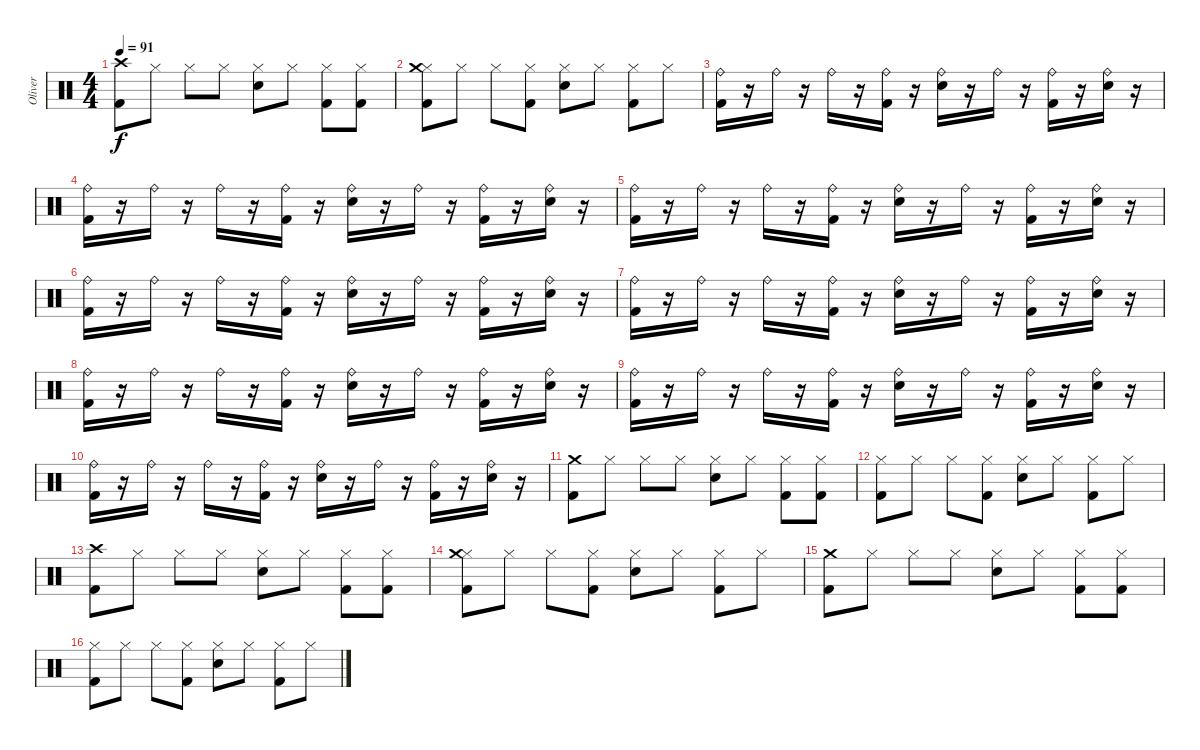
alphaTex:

\track ("Oliver" "Oliver") {instrument percussion}
\staff {score}
\articulation defaults
\ts (4 4)
\tempo 91
\clef neutral
\ks c
("Kick (hit) 2" "Crash high (hit)").8{dy f} "Hi-Hat (closed)".8 "Hi-Hat (closed)".8 "Hi-Hat (closed)".8 ("Hi-Hat (closed)" "Snare (hit) 2").8 "Hi-Hat (closed)".8 ("Hi-Hat (closed)" "Kick (hit) 2").8 ("Hi-Hat (closed)" "Kick (hit) 2").8 |
("Hi-Hat (closed)" "Kick (hit) 2" "Crash medium (hit)").8 "Hi-Hat (closed)".8 "Hi-Hat (closed)".8 ("Hi-Hat (closed)" "Kick (hit) 2").8 ("Hi-Hat (closed)" "Snare (hit) 2").8 "Hi-Hat (closed)".8 ("Hi-Hat (closed)" "Kick (hit) 2").8 "Hi-Hat (closed)".8 |
("Ride (bell)" "Kick (hit) 2").16 r.16 "Ride (bell)".16 r.16 "Ride (bell)".16 r.16 ("Ride (bell)" "Kick (hit) 2").16 r.16 ("Ride (bell)" "Snare (hit) 2").16 r.16 "Ride (bell)".16 r.16 ("Ride (bell)" "Kick (hit) 2").16 r.16 ("Ride (bell)" "Snare (hit) 2").16 r.16 |
("Ride (bell)" "Kick (hit) 2").16 r.16 "Ride (bell)".16 r.16 "Ride (bell)".16 r.16 ("Ride (bell)" "Kick (hit) 2").16 r.16 ("Ride (bell)" "Snare (hit) 2").16 r.16 "Ride (bell)".16 r.16 ("Ride (bell)" "Kick (hit) 2").16 r.16 ("Ride (bell)" "Snare (hit) 2").16 r.16 |
("Ride (bell)" "Kick (hit) 2").16 r.16 "Ride (bell)".16 r.16 "Ride (bell)".16 r.16 ("Ride (bell)" "Kick (hit) 2").16 r.16 ("Ride (bell)" "Snare (hit) 2").16 r.16 "Ride (bell)".16 r.16 ("Ride (bell)" "Kick (hit) 2").16 r.16 ("Ride (bell)" "Snare (hit) 2").16 r.16 |
("Ride (bell)" "Kick (hit) 2").16 r.16 "Ride (bell)".16 r.16 "Ride (bell)".16 r.16 ("Ride (bell)" "Kick (hit) 2").16 r.16 ("Ride (bell)" "Snare (hit) 2").16 r.16 "Ride (bell)".16 r.16 ("Ride (bell)" "Kick (hit) 2").16 r.16 ("Ride (bell)" "Snare (hit) 2").16 r.16 |
("Ride (bell)" "Kick (hit) 2").16 r.16 "Ride (bell)".16 r.16 "Ride (bell)".16 r.16 ("Ride (bell)" "Kick (hit) 2").16 r.16 ("Ride (bell)" "Snare (hit) 2").16 r.16 "Ride (bell)".16 r.16 ("Ride (bell)" "Kick (hit) 2").16 r.16 ("Ride (bell)" "Snare (hit) 2").16 r.16 |
("Ride (bell)" "Kick (hit) 2").16 r.16 "Ride (bell)".16 r.16 "Ride (bell)".16 r.16 ("Ride (bell)" "Kick (hit) 2").16 r.16 ("Ride (bell)" "Snare (hit) 2").16 r.16 "Ride (bell)".16 r.16 ("Ride (bell)" "Kick (hit) 2").16 r.16 ("Ride (bell)" "Snare (hit) 2").16 r.16 |
("Ride (bell)" "Kick (hit) 2").16 r.16 "Ride (bell)".16 r.16 "Ride (bell)".16 r.16 ("Ride (bell)" "Kick (hit) 2").16 r.16 ("Ride (bell)" "Snare (hit) 2").16 r.16 "Ride (bell)".16 r.16 ("Ride (bell)" "Kick (hit) 2").16 r.16 ("Ride (bell)" "Snare (hit) 2").16 r.16 |
("Ride (bell)" "Kick (hit) 2").16 r.16 "Ride (bell)".16 r.16 "Ride (bell)".16 r.16 ("Ride (bell)" "Kick (hit) 2").16 r.16 ("Ride (bell)" "Snare (hit) 2").16 r.16 "Ride (bell)".16 r.16 ("Ride (bell)" "Kick (hit) 2").16 r.16 ("Ride (bell)" "Snare (hit) 2").16 r.16 |
("Kick (hit) 2" "Crash medium (hit)").8 "Hi-Hat (closed)".8 "Hi-Hat (closed)".8 "Hi-Hat (closed)".8 ("Hi-Hat (closed)" "Snare (hit) 2").8 "Hi-Hat (closed)".8 ("Hi-Hat (closed)" "Kick (hit) 2").8 ("Hi-Hat (closed)" "Kick (hit) 2").8 |
("Hi-Hat (closed)" "Kick (hit) 2").8 "Hi-Hat (closed)".8 "Hi-Hat (closed)".8 ("Hi-Hat (closed)" "Kick (hit) 2").8 ("Hi-Hat (closed)" "Snare (hit) 2").8 "Hi-Hat (closed)".8 ("Hi-Hat (closed)" "Kick (hit) 2").8 "Hi-Hat (closed)".8 |
("Kick (hit) 2" "Crash high (hit)").8 "Hi-Hat (closed)".8 "Hi-Hat (closed)".8 "Hi-Hat (closed)".8 ("Hi-Hat (closed)" "Snare (hit) 2").8 "Hi-Hat (closed)".8 ("Hi-Hat (closed)" "Kick (hit) 2").8 ("Hi-Hat (closed)" "Kick (hit) 2").8 |
("Hi-Hat (closed)" "Kick (hit) 2" "Crash medium (hit)").8 "Hi-Hat (closed)".8 "Hi-Hat (closed)".8 ("Hi-Hat (closed)" "Kick (hit) 2").8 ("Hi-Hat (closed)" "Snare (hit) 2").8 "Hi-Hat (closed)".8 ("Hi-Hat (closed)" "Kick (hit) 2").8 "Hi-Hat (closed)".8 |
("Kick (hit) 2" "Crash medium (hit)").8 "Hi-Hat (closed)".8 "Hi-Hat (closed)".8 "Hi-Hat (closed)".8 ("Hi-Hat (closed)" "Snare (hit) 2").8 "Hi-Hat (closed)".8 ("Hi-Hat (closed)" "Kick (hit) 2").8 ("Hi-Hat (closed)" "Kick (hit) 2").8 |
("Hi-Hat (closed)" "Kick (hit) 2").8 "Hi-Hat (closed)".8 "Hi-Hat (closed)".8 ("Hi-Hat (closed)" "Kick (hit) 2").8 ("Hi-Hat (closed)" "Snare (hit) 2").8 "Hi-Hat (closed)".8 ("Hi-Hat (closed)" "Kick (hit) 2").8 "Hi-Hat (closed)".8
